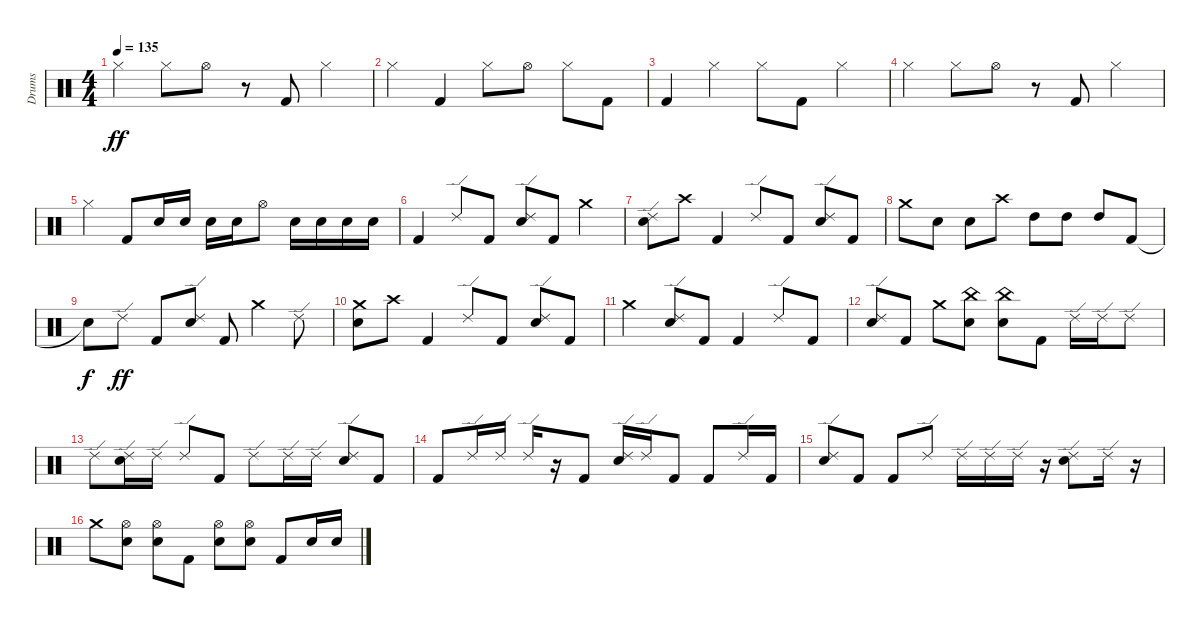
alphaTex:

\track ("Drums" "Drums") {instrument percussion}
\staff {score}
\articulation defaults
\ts (4 4)
\tempo 135
\clef neutral
\ks c "Hi-Hat (closed)".4{dy ff} "Hi-Hat (closed)".8 "Hi-Hat (open)".8
r.8 "Kick (hit) 2".8 "Hi-Hat (closed)".4 |
"Hi-Hat (closed)".4 "Kick (hit) 2".4 "Hi-Hat (closed)".8 "Hi-Hat (open)".8 "Hi-Hat (closed)".8 "Kick (hit) 2".8 |
"Kick (hit) 2".4 "Hi-Hat (closed)".4 "Hi-Hat (closed)".8 "Kick (hit) 2".8 "Hi-Hat (closed)".4 |
"Hi-Hat (closed)".4 "Hi-Hat (closed)".8 "Hi-Hat (open)".8 r.8 "Kick (hit) 2".8 "Hi-Hat (closed)".4 |
"Hi-Hat (closed)".4 "Kick (hit) 2".8 "Electric Snare (hit)".16 "Electric Snare (hit)".16 "Electric Snare (hit)".16 "Electric Snare (hit)".16 "Hi-Hat (open)".8 "Electric Snare (hit)".16 "Electric Snare (hit)".16 "Electric Snare (hit)".16 "Electric Snare (hit)".16 |
"Kick (hit) 2".4 "Ride (edge) 2".8 "Kick (hit) 2".8 ("Electric Snare (hit)" "Ride (edge) 2").8 "Kick (hit) 2".8 "Crash medium (hit)".4 |
("Electric Snare (hit)" "Ride (edge) 2").8 "Crash high (hit)".8 "Kick (hit) 2".4 "Ride (edge) 2".8 "Kick (hit) 2".8 ("Electric Snare (hit)" "Ride (edge) 2").8 "Kick (hit) 2".8 |
"Crash medium (hit)".8 "Electric Snare (hit)".8 "Electric Snare (hit)".8 "Crash high (hit)".8 "High Tom (hit)".8 "High Tom (hit)".8 "High Tom (hit)".8 "Kick (hit) 2".8 |
"Snare (hit)"{t}.8{dy f} "Ride (edge) 2".8{dy ff} "Kick (hit) 2".8 ("Electric Snare (hit)" "Ride (edge) 2").8 "Kick (hit) 2".8 "Crash medium (hit)".4 "Ride (edge) 2".8 |
("Electric Snare (hit)" "Crash medium (hit)").8 "Crash high (hit)".8 "Kick (hit) 2".4 "Ride (edge) 2".8 "Kick (hit) 2".8 ("Electric Snare (hit)" "Ride (edge) 2").8 "Kick (hit) 2".8 |
"Crash medium (hit)".4 ("Electric Snare (hit)" "Ride (edge) 2").8 "Kick (hit) 2".8 "Kick (hit) 2".4 "Ride (edge) 2".8 "Kick (hit) 2".8 |
("Electric Snare (hit)" "Ride (edge) 2").8 "Kick (hit) 2".8 "Crash medium (hit)".8 ("Electric Snare (hit)" "China (hit)").8 ("Electric Snare (hit)" "China (hit)").8 "Kick (hit) 2".8 "Ride (edge) 2".16 "Ride (edge) 2".16 "Ride (edge) 2".8 |
"Ride (edge) 2".8 ("Electric Snare (hit)" "Ride (edge) 2").16 "Ride (edge) 2".16 "Ride (edge) 2".8 "Kick (hit) 2".8 "Ride (edge) 2".8 "Ride (edge) 2".16 "Ride (edge) 2".16 ("Electric Snare (hit)" "Ride (edge) 2").8 "Kick (hit) 2".8 |
"Kick (hit) 2".8 "Ride (edge) 2".16 "Ride (edge) 2".16 "Ride (edge) 2".16 r.16 "Kick (hit) 2".8 ("Electric Snare (hit)" "Ride (edge) 2").16 "Ride (edge) 2".16 "Kick (hit) 2".8 "Kick (hit) 2".8 "Ride (edge) 2".16 "Kick (hit) 2".16 |
("Electric Snare (hit)" "Ride (edge) 2").8 "Kick (hit) 2".8 "Kick (hit) 2".8 "Ride (edge) 2".8 "Ride (edge) 2".16 "Ride (edge) 2".16 "Ride (edge) 2".16 r.16 ("Electric Snare (hit)" "Ride (edge) 2").8 "Ride (edge) 2".16 r.16 |
"Crash medium (hit)".8 ("Electric Snare (hit)" "Hi-Hat (open)").8 ("Electric Snare (hit)" "Hi-Hat (open)").8 "Kick (hit) 2".8 ("Electric Snare (hit)" "Hi-Hat (open)").8 ("Electric Snare (hit)" "Hi-Hat (open)").8 "Kick (hit) 2".8 "Electric Snare (hit)".16 "Electric Snare (hit)".16
